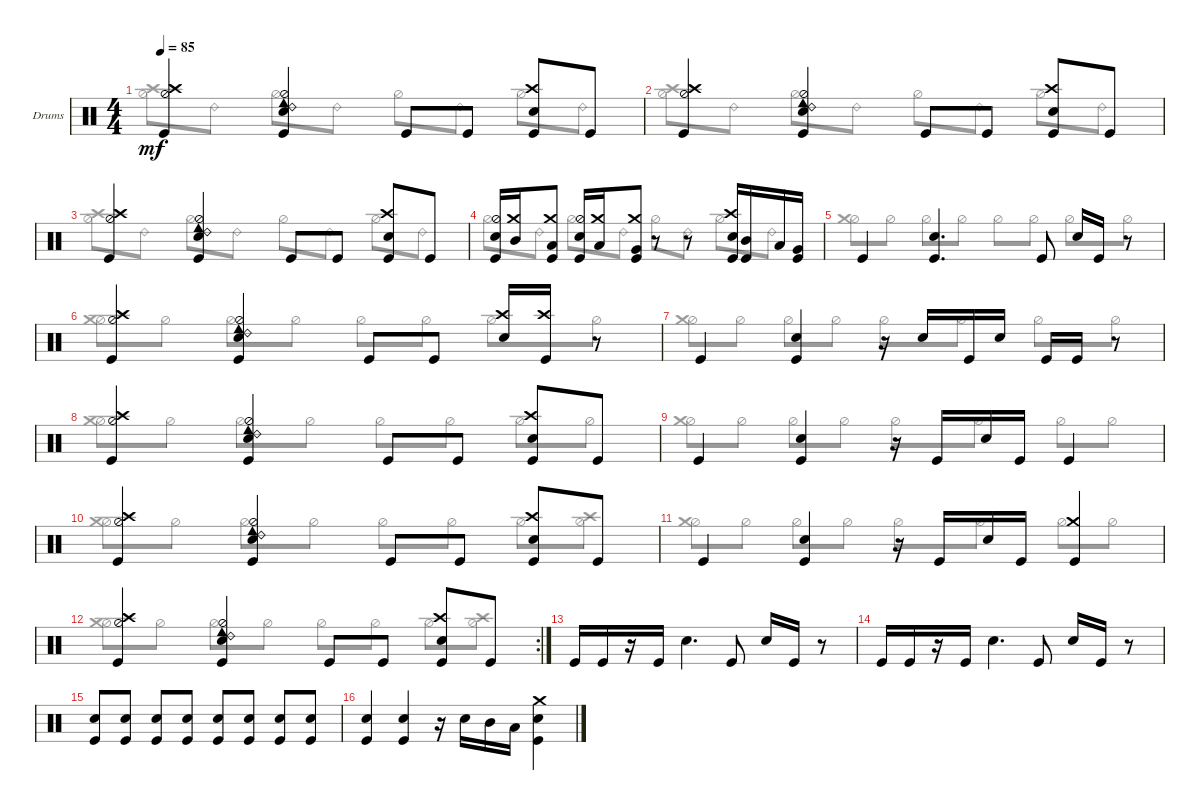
\defaultSystemsLayout 4
\bracketExtendMode groupsimilarinstruments
\firstSystemTrackNameOrientation horizontal
\otherSystemsTrackNameOrientation horizontal
\track ("Drumkit" "Drums") {instrument percussion}
\staff {score}
\articulation defaults
\voice
\ts (4 4)
\tempo 85
\clef neutral
\scale
0.333333
\ks c
("Kick (hit)" "Hi-Hat (half)" "Crash high (hit)").4{dy mf} ("Snare (hit) 2" "Hi-Hat (half)" "Cowbell low (hit)" "Ride (bell) 2" "Kick (hit)").4 "Kick (hit)".8 "Kick (hit)".8 ("Snare (hit) 2" "Kick (hit)" "Crash high (hit)").8 "Kick (hit)".8 |
\scale
0.333333 ("Kick (hit)" "Hi-Hat (half)" "Crash high (hit)").4 ("Snare (hit) 2" "Hi-Hat (half)" "Cowbell low (hit)" "Ride (bell) 2" "Kick (hit)").4 "Kick (hit)".8 "Kick (hit)".8 ("Snare (hit) 2" "Kick (hit)" "Crash high (hit)").8 "Kick (hit)".8 |
\scale
0.333333 ("Kick (hit)" "Hi-Hat (half)" "Crash high (hit)").4 ("Snare (hit) 2" "Hi-Hat (half)" "Cowbell low (hit)" "Ride (bell) 2" "Kick (hit)").4 "Kick (hit)".8 "Kick (hit)".8 ("Snare (hit) 2" "Kick (hit)" "Crash high (hit)").8 "Kick (hit)".8 |
\scale
0.333333 ("Kick (hit)" "Hi-Hat (half)" "Snare (hit) 2").16 ("Crash medium (hit)" "Mid Tom (hit)").16 ("Kick (hit)" "Low Tom (hit)" "Crash medium (hit)").8 ("Kick (hit)" "Hi-Hat (half)" "Snare (hit) 2").16 ("Crash medium (hit)" "Low Tom (hit)").16 ("Kick (hit)" "Crash medium (hit)" "Very Low Tom (hit)").8 r.8 r.8 ("Snare (hit) 2" "Kick (hit)" "Crash high (hit)").16 ("Kick (hit)" "Mid Tom (hit)").16 "Low Tom (hit)".16 ("Very Low Tom (hit)" "Kick (hit)").16 |
\scale
0.333333 "Kick (hit)".4 ("Snare (hit) 2" "Kick (hit)").4{d} "Kick (hit)".8 "Snare (hit) 2".16 "Kick (hit)".16 r.8 |
\scale
0.333333 ("Kick (hit)" "Hi-Hat (half)" "Crash high (hit)").4 ("Snare (hit) 2" "Hi-Hat (half)" "Cowbell low (hit)" "Ride (bell) 2" "Kick (hit)").4 "Kick (hit)".8 "Kick (hit)".8 ("Snare (hit) 2" "Crash high (hit)").16 ("Kick (hit)" "Crash high (hit)").16 r.8 |
\scale
0.333333 "Kick (hit)".4 ("Snare (hit) 2" "Kick (hit)").4 r.16 "Snare (hit) 2".16 "Kick (hit)".16 "Snare (hit) 2".16 "Kick (hit)".16 "Kick (hit)".16 r.8 |
\scale
0.333333 ("Kick (hit)" "Hi-Hat (half)" "Crash high (hit)").4 ("Snare (hit) 2" "Hi-Hat (half)" "Cowbell low (hit)" "Ride (bell) 2" "Kick (hit)").4 "Kick (hit)".8 "Kick (hit)".8 ("Snare (hit) 2" "Kick (hit)" "Crash high (hit)").8 "Kick (hit)".8 |
\scale
0.333333 "Kick (hit)".4 ("Snare (hit) 2" "Kick (hit)").4 r.16 "Kick (hit)".16 "Snare (hit) 2".16 "Kick (hit)".16 "Kick (hit)".4 |
\scale
0.321839 ("Kick (hit)" "Hi-Hat (half)" "Crash high (hit)").4 ("Snare (hit) 2" "Hi-Hat (half)" "Cowbell low (hit)" "Ride (bell) 2" "Kick (hit)").4 "Kick (hit)".8 "Kick (hit)".8 ("Snare (hit) 2" "Kick (hit)" "Crash high (hit)").8 "Kick (hit)".8 |
\scale
0.321839 "Kick (hit)".4 ("Snare (hit) 2" "Kick (hit)").4 r.16 "Kick (hit)".16 "Snare (hit) 2".16 "Kick (hit)".16 ("Kick (hit)" "Crash medium (hit)").4 |
\rc 2
\scale
0.356322 ("Kick (hit)" "Hi-Hat (half)" "Crash high (hit)").4 ("Snare (hit) 2" "Hi-Hat (half)" "Cowbell low (hit)" "Ride (bell) 2" "Kick (hit)").4 "Kick (hit)".8 "Kick (hit)".8 ("Snare (hit) 2" "Kick (hit)" "Crash high (hit)").8 "Kick (hit)".8 |
\scale
0.333333 "Kick (hit)".16 "Kick (hit)".16 r.16 "Kick (hit)".16 "Snare (hit) 2".4{d} "Kick (hit)".8 "Snare (hit) 2".16 "Kick (hit)".16 r.8 |
\scale
0.333333 "Kick (hit)".16 "Kick (hit)".16 r.16 "Kick (hit)".16 "Snare (hit) 2".4{d} "Kick (hit)".8 "Snare (hit) 2".16 "Kick (hit)".16 r.8 |
\scale
0.333333 ("Kick (hit)" "Snare (hit) 2").8 ("Kick (hit)" "Snare (hit) 2").8 ("Snare (hit) 2" "Kick (hit)").8 ("Kick (hit)" "Snare (hit) 2").8 ("Snare (hit) 2" "Kick (hit)").8 ("Kick (hit)" "Snare (hit) 2").8 ("Snare (hit) 2" "Kick (hit)").8 ("Kick (hit)" "Snare (hit) 2").8 |
\scale
0.333333 ("Kick (hit)" "Snare (hit) 2").4 ("Kick (hit)" "Snare (hit) 2").4 r.16 "Snare (hit) 2".16 "Mid Tom (hit)".16 "Low Tom (hit)".16 ("Kick (hit)" "Snare (hit) 2" "Crash medium (hit)").4
\voice
\clef neutral
\ottava regular
\simile none
\scale
0.333333
\ks c
("Hi-Hat (half)" "Crash high (hit)").8{dy mf} "Ride (bell) 2".8 "Hi-Hat (half)".8 "Ride (bell) 2".8 "Hi-Hat (half)".8 "Ride (bell) 2".8 "Hi-Hat (half)".8 "Ride (bell) 2".8 |
\scale
0.333333 ("Hi-Hat (half)" "Crash high (hit)").8 "Ride (bell) 2".8 "Hi-Hat (half)".8 "Ride (bell) 2".8 "Hi-Hat (half)".8 "Ride (bell) 2".8 "Hi-Hat (half)".8 "Ride (bell) 2".8 |
\scale
0.333333 ("Hi-Hat (half)" "Crash high (hit)").8 "Ride (bell) 2".8 "Hi-Hat (half)".8 "Ride (bell) 2".8 "Hi-Hat (half)".8 "Ride (bell) 2".8 "Hi-Hat (half)".8 "Ride (bell) 2".8 |
\scale
0.333333 "Hi-Hat (half)".8 "Ride (bell) 2".8 "Hi-Hat (half)".8 "Ride (bell) 2".8 "Hi-Hat (half)".8 "Ride (bell) 2".8 "Hi-Hat (half)".8 "Ride (bell) 2".8 |
\scale
0.333333 ("Hi-Hat (half)" "Crash medium (hit)").8 "Hi-Hat (half)".8 "Hi-Hat (half)".8 "Hi-Hat (half)".8 "Hi-Hat (half)".8 "Hi-Hat (half)".8 "Hi-Hat (half)".8 "Hi-Hat (half)".8 |
\scale
0.333333 ("Hi-Hat (half)" "Crash medium (hit)").8 "Hi-Hat (half)".8 "Hi-Hat (half)".8 "Hi-Hat (half)".8 "Hi-Hat (half)".8 "Hi-Hat (half)".8 "Hi-Hat (half)".8 "Hi-Hat (half)".8 |
\scale
0.333333 ("Hi-Hat (half)" "Crash medium (hit)").8 "Hi-Hat (half)".8 "Hi-Hat (half)".8 "Hi-Hat (half)".8 "Hi-Hat (half)".8 "Hi-Hat (half)".8 "Hi-Hat (half)".8 "Hi-Hat (half)".8 |
\scale
0.333333 ("Hi-Hat (half)" "Crash medium (hit)").8 "Hi-Hat (half)".8 "Hi-Hat (half)".8 "Hi-Hat (half)".8 "Hi-Hat (half)".8 "Hi-Hat (half)".8 "Hi-Hat (half)".8 "Hi-Hat (half)".8 |
\scale
0.333333 ("Hi-Hat (half)" "Crash medium (hit)").8 "Hi-Hat (half)".8 "Hi-Hat (half)".8 "Hi-Hat (half)".8 "Hi-Hat (half)".8 "Hi-Hat (half)".8 "Hi-Hat (half)".8 "Hi-Hat (half)".8 |
\scale
0.321839 ("Hi-Hat (half)" "Crash medium (hit)").8 "Hi-Hat (half)".8 "Hi-Hat (half)".8 "Hi-Hat (half)".8 "Hi-Hat (half)".8 "Hi-Hat (half)".8 "Hi-Hat (half)".8 ("Hi-Hat (half)" "Crash high (hit)").8 |
\scale
0.321839 ("Hi-Hat (half)" "Crash medium (hit)").8 "Hi-Hat (half)".8 "Hi-Hat (half)".8 "Hi-Hat (half)".8 "Hi-Hat (half)".8 "Hi-Hat (half)".8 "Hi-Hat (half)".8 "Hi-Hat (half)".8 |
\scale
0.356322 ("Hi-Hat (half)" "Crash medium (hit)").8 "Hi-Hat (half)".8 "Hi-Hat (half)".8 "Hi-Hat (half)".8 "Hi-Hat (half)".8 "Hi-Hat (half)".8 "Hi-Hat (half)".8 ("Hi-Hat (half)" "Crash high (hit)").8 |
\scale
0.333333 |
\scale
0.333333 |
\scale
0.333333 |
\scale
0.333333
